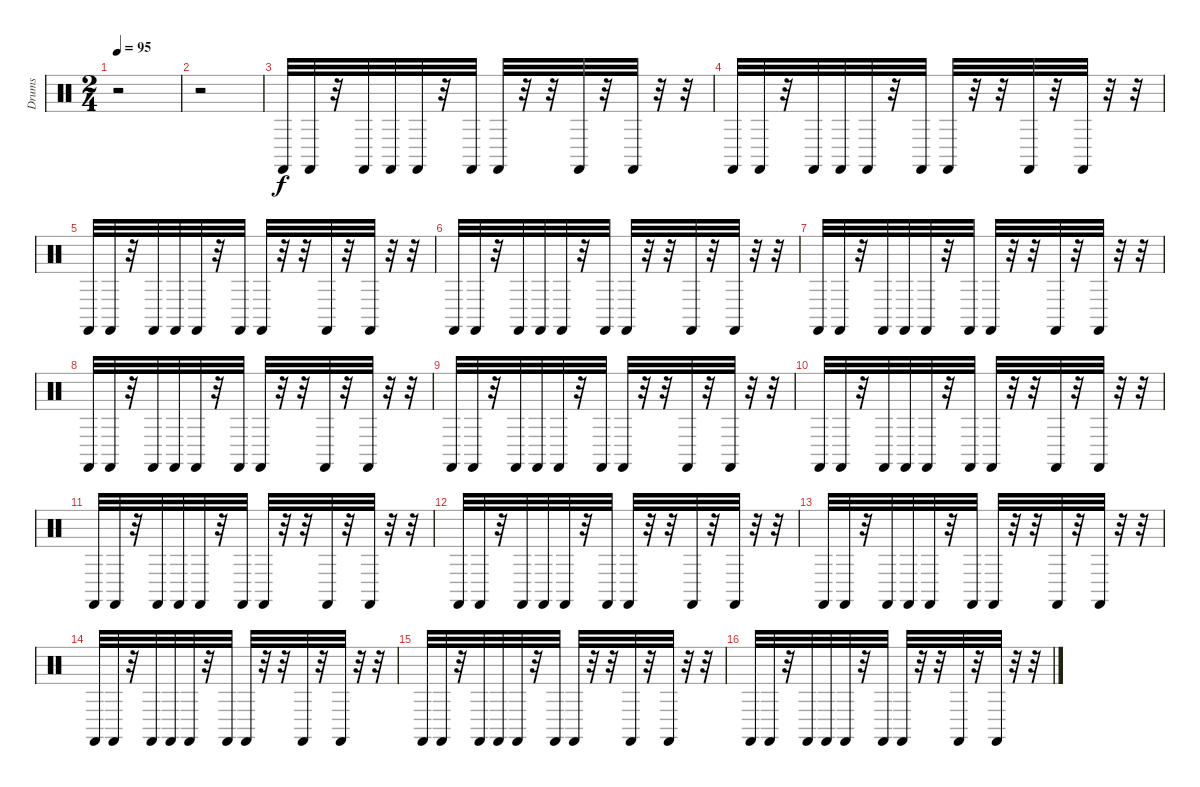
\track ("Drums" "Drums") {instrument percussion}
\staff {score}
\articulation defaults
\ts (2 4)
\tempo 95
\clef neutral
\ks c
r.2{dy f} |
r.2 |
"Castanets (hit)".32 "Castanets (hit)".32 r.32 "Castanets (hit)".32 "Castanets (hit)".32 "Castanets (hit)".32 r.32 "Castanets (hit)".32 "Castanets (hit)".32 r.32 r.32 "Castanets (hit)".32 r.32 "Castanets (hit)".32 r.32 r.32 |
"Castanets (hit)".32 "Castanets (hit)".32 r.32 "Castanets (hit)".32 "Castanets (hit)".32 "Castanets (hit)".32 r.32 "Castanets (hit)".32 "Castanets (hit)".32 r.32 r.32 "Castanets (hit)".32 r.32 "Castanets (hit)".32 r.32 r.32 |
"Castanets (hit)".32 "Castanets (hit)".32 r.32 "Castanets (hit)".32 "Castanets (hit)".32 "Castanets (hit)".32 r.32 "Castanets (hit)".32 "Castanets (hit)".32 r.32 r.32 "Castanets (hit)".32 r.32 "Castanets (hit)".32 r.32 r.32 |
"Castanets (hit)".32 "Castanets (hit)".32 r.32 "Castanets (hit)".32 "Castanets (hit)".32 "Castanets (hit)".32 r.32 "Castanets (hit)".32 "Castanets (hit)".32 r.32 r.32 "Castanets (hit)".32 r.32 "Castanets (hit)".32 r.32 r.32 |
"Castanets (hit)".32 "Castanets (hit)".32 r.32 "Castanets (hit)".32 "Castanets (hit)".32 "Castanets (hit)".32 r.32 "Castanets (hit)".32 "Castanets (hit)".32 r.32 r.32 "Castanets (hit)".32 r.32 "Castanets (hit)".32 r.32 r.32 |
"Castanets (hit)".32 "Castanets (hit)".32 r.32 "Castanets (hit)".32 "Castanets (hit)".32 "Castanets (hit)".32 r.32 "Castanets (hit)".32 "Castanets (hit)".32 r.32 r.32 "Castanets (hit)".32 r.32 "Castanets (hit)".32 r.32 r.32 |
"Castanets (hit)".32 "Castanets (hit)".32 r.32 "Castanets (hit)".32 "Castanets (hit)".32 "Castanets (hit)".32 r.32 "Castanets (hit)".32 "Castanets (hit)".32 r.32 r.32 "Castanets (hit)".32 r.32 "Castanets (hit)".32 r.32 r.32 |
"Castanets (hit)".32 "Castanets (hit)".32 r.32 "Castanets (hit)".32 "Castanets (hit)".32 "Castanets (hit)".32 r.32 "Castanets (hit)".32 "Castanets (hit)".32 r.32 r.32 "Castanets (hit)".32 r.32 "Castanets (hit)".32 r.32 r.32 |
"Castanets (hit)".32 "Castanets (hit)".32 r.32 "Castanets (hit)".32 "Castanets (hit)".32 "Castanets (hit)".32 r.32 "Castanets (hit)".32 "Castanets (hit)".32 r.32 r.32 "Castanets (hit)".32 r.32 "Castanets (hit)".32 r.32 r.32 |
"Castanets (hit)".32 "Castanets (hit)".32 r.32 "Castanets (hit)".32 "Castanets (hit)".32 "Castanets (hit)".32 r.32 "Castanets (hit)".32 "Castanets (hit)".32 r.32 r.32 "Castanets (hit)".32 r.32 "Castanets (hit)".32 r.32 r.32 |
"Castanets (hit)".32 "Castanets (hit)".32 r.32 "Castanets (hit)".32 "Castanets (hit)".32 "Castanets (hit)".32 r.32 "Castanets (hit)".32 "Castanets (hit)".32 r.32 r.32 "Castanets (hit)".32 r.32 "Castanets (hit)".32 r.32 r.32 |
"Castanets (hit)".32 "Castanets (hit)".32 r.32 "Castanets (hit)".32 "Castanets (hit)".32 "Castanets (hit)".32 r.32 "Castanets (hit)".32 "Castanets (hit)".32 r.32 r.32 "Castanets (hit)".32 r.32 "Castanets (hit)".32 r.32 r.32 |
"Castanets (hit)".32 "Castanets (hit)".32 r.32 "Castanets (hit)".32 "Castanets (hit)".32 "Castanets (hit)".32 r.32 "Castanets (hit)".32 "Castanets (hit)".32 r.32 r.32 "Castanets (hit)".32 r.32 "Castanets (hit)".32 r.32 r.32 |
"Castanets (hit)".32 "Castanets (hit)".32 r.32 "Castanets (hit)".32 "Castanets (hit)".32 "Castanets (hit)".32 r.32 "Castanets (hit)".32 "Castanets (hit)".32 r.32 r.32 "Castanets (hit)".32 r.32 "Castanets (hit)".32 r.32 r.32
